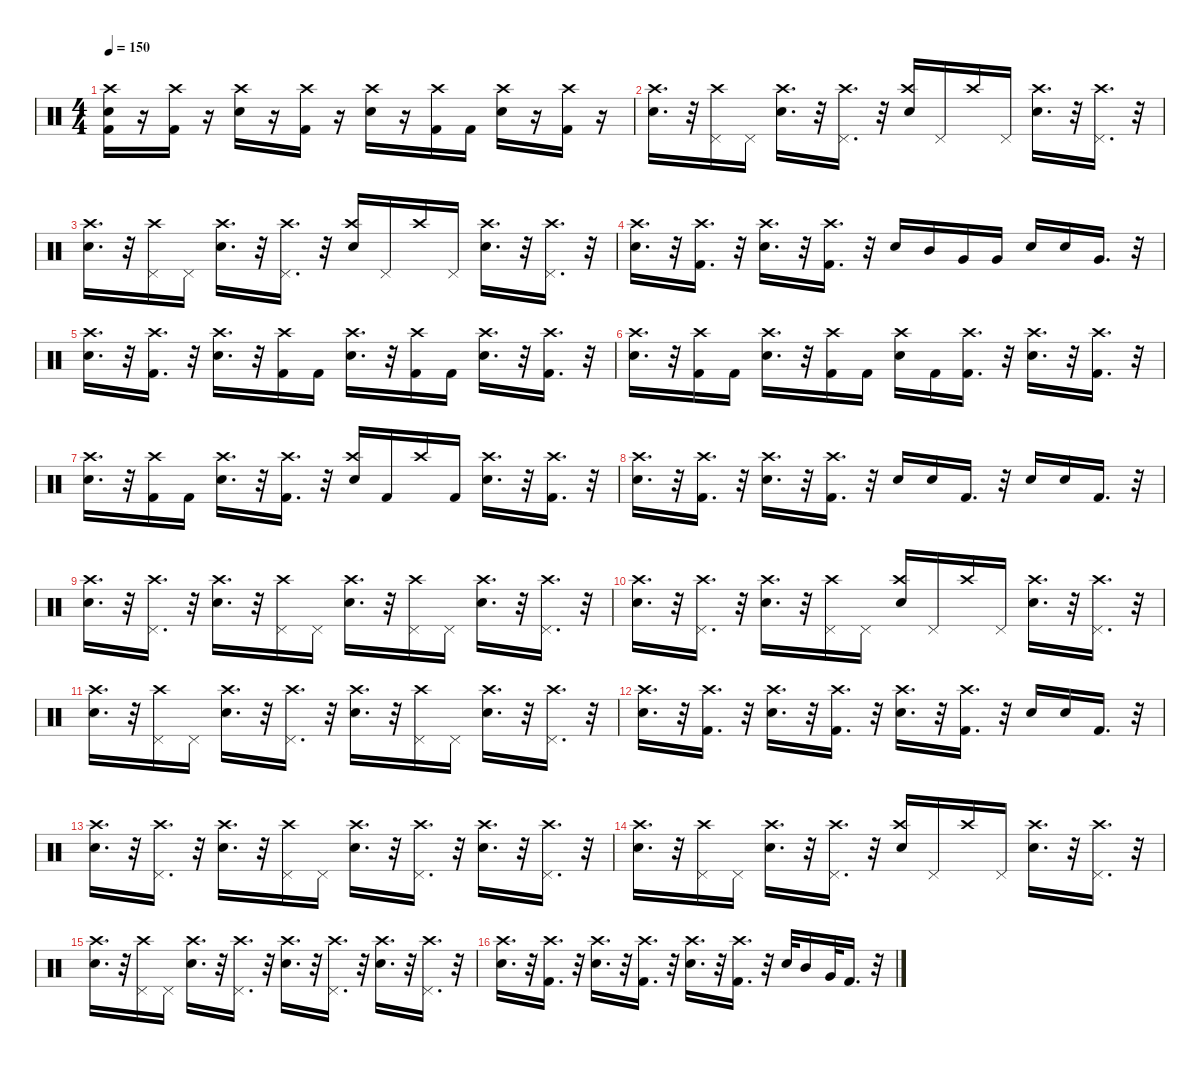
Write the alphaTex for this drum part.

\defaultSystemsLayout 4
\hideDynamics
\bracketExtendMode nobrackets
\singleTrackTrackNamePolicy hidden
\multiTrackTrackNamePolicy hidden
\firstSystemTrackNameMode fullname
\firstSystemTrackNameOrientation horizontal
\otherSystemsTrackNameOrientation horizontal
\track ("Bonzo" "drm.") {instrument percussion}
\staff {score}
\articulation defaults
\ts (4 4)
\tempo 150
\clef neutral
\ks c
("Snare (hit) 2" "Kick (hit) 2" "Crash high (hit)").16{dy fff beam Down} r.16{beam Down} ("Kick (hit) 2" "Crash high (hit)").16{beam Down} r.16{beam Down} ("Snare (hit) 2" "Crash high (hit)").16{beam Down} r.16{beam Down} ("Kick (hit) 2" "Crash high (hit)").16{beam Down} r.16{beam Down} ("Snare (hit) 2" "Crash high (hit)").16{beam Down} r.16{beam Down} ("Kick (hit) 2" "Crash high (hit)").16{beam Down} "Kick (hit) 2".16{beam Down} ("Snare (hit) 2" "Crash high (hit)").16{beam Down} r.16{beam Down} ("Kick (hit) 2" "Crash high (hit)").16{beam Down} r.16{beam Down} |
("Snare (hit) 2" "Crash high (hit)").16{d beam Down} r.32{beam Down} ("Pedal Hi-Hat (hit)" "Crash high (hit)").16{beam Down} "Pedal Hi-Hat (hit)".16{beam Down} ("Snare (hit) 2" "Crash high (hit)").16{d beam Down} r.32{beam Down} ("Pedal Hi-Hat (hit)" "Crash high (hit)").16{d beam Down} r.32{beam Down} ("Snare (hit) 2" "Crash high (hit)").16{beam Up} "Pedal Hi-Hat (hit)".16{beam Up} "Crash high (hit)".16{dy ff beam Up} "Pedal Hi-Hat (hit)".16{dy fff beam Up} ("Snare (hit) 2" "Crash high (hit)").16{d beam Down} r.32{beam Down} ("Pedal Hi-Hat (hit)" "Crash high (hit)").16{d beam Down} r.32{beam Down} |
("Snare (hit) 2" "Crash high (hit)").16{d beam Down} r.32{beam Down} ("Pedal Hi-Hat (hit)" "Crash high (hit)").16{beam Down} "Pedal Hi-Hat (hit)".16{beam Down} ("Snare (hit) 2" "Crash high (hit)").16{d beam Down} r.32{beam Down} ("Pedal Hi-Hat (hit)" "Crash high (hit)").16{d beam Down} r.32{beam Down} ("Snare (hit) 2" "Crash high (hit)").16{beam Up} "Pedal Hi-Hat (hit)".16{beam Up} "Crash high (hit)".16{dy ff beam Up} "Pedal Hi-Hat (hit)".16{dy fff beam Up} ("Snare (hit) 2" "Crash high (hit)").16{d beam Down} r.32{beam Down} ("Pedal Hi-Hat (hit)" "Crash high (hit)").16{d beam Down} r.32{beam Down} |
("Snare (hit) 2" "Crash high (hit)").16{d beam Down} r.32{beam Down} ("Kick (hit) 2" "Crash high (hit)").16{d beam Down} r.32{beam Down} ("Snare (hit) 2" "Crash high (hit)").16{d beam Down} r.32{beam Down} ("Kick (hit) 2" "Crash high (hit)").16{d beam Down} r.32{beam Down} "Snare (hit) 2".16{beam Up} "Mid Tom (hit)".16{dy ff beam Up} "Very Low Tom (hit)".16{beam Up} "Very Low Tom (hit)".16{beam Up} "Snare (hit) 2".16{dy fff beam Up} "Snare (hit) 2".16{beam Up} "Very Low Tom (hit)".16{d dy ff beam Up} r.32{beam Up} |
("Snare (hit) 2" "Crash high (hit)").16{d dy fff beam Down} r.32{beam Down} ("Kick (hit) 2" "Crash high (hit)").16{d beam Down} r.32{beam Down} ("Snare (hit) 2" "Crash high (hit)").16{d beam Down} r.32{beam Down} ("Kick (hit) 2" "Crash high (hit)").16{beam Down} "Kick (hit) 2".16{beam Down} ("Snare (hit) 2" "Crash high (hit)").16{d beam Down} r.32{beam Down} ("Kick (hit) 2" "Crash high (hit)").16{beam Down} "Kick (hit) 2".16{beam Down} ("Snare (hit) 2" "Crash high (hit)").16{d beam Down} r.32{beam Down} ("Kick (hit) 2" "Crash high (hit)").16{d beam Down} r.32{beam Down} |
("Snare (hit) 2" "Crash high (hit)").16{d beam Down} r.32{beam Down} ("Kick (hit) 2" "Crash high (hit)").16{beam Down} "Kick (hit) 2".16{beam Down} ("Snare (hit) 2" "Crash high (hit)").16{d beam Down} r.32{beam Down} ("Kick (hit) 2" "Crash high (hit)").16{beam Down} "Kick (hit) 2".16{beam Down} ("Snare (hit) 2" "Crash high (hit)").16{beam Down} "Kick (hit) 2".16{beam Down} ("Kick (hit) 2" "Crash high (hit)").16{d beam Down} r.32{beam Down} ("Snare (hit) 2" "Crash high (hit)").16{d beam Down} r.32{beam Down} ("Kick (hit) 2" "Crash high (hit)").16{d beam Down} r.32{beam Down} |
("Snare (hit) 2" "Crash high (hit)").16{d beam Down} r.32{beam Down} ("Kick (hit) 2" "Crash high (hit)").16{beam Down} "Kick (hit) 2".16{beam Down} ("Snare (hit) 2" "Crash high (hit)").16{d beam Down} r.32{beam Down} ("Kick (hit) 2" "Crash high (hit)").16{d beam Down} r.32{beam Down} ("Snare (hit) 2" "Crash high (hit)").16{beam Up} "Kick (hit) 2".16{beam Up} "Crash high (hit)".16{dy ff beam Up} "Kick (hit) 2".16{dy fff beam Up} ("Snare (hit) 2" "Crash high (hit)").16{d beam Down} r.32{beam Down} ("Kick (hit) 2" "Crash high (hit)").16{d beam Down} r.32{beam Down} |
("Snare (hit) 2" "Crash high (hit)").16{d beam Down} r.32{beam Down} ("Kick (hit) 2" "Crash high (hit)").16{d beam Down} r.32{beam Down} ("Snare (hit) 2" "Crash high (hit)").16{d beam Down} r.32{beam Down} ("Kick (hit) 2" "Crash high (hit)").16{d beam Down} r.32{beam Down} "Snare (hit) 2".16{beam Up} "Snare (hit) 2".16{beam Up} "Kick (hit) 2".16{d beam Up} r.32{beam Up} "Snare (hit) 2".16{beam Up} "Snare (hit) 2".16{beam Up} "Kick (hit) 2".16{d beam Up} r.32{beam Up} |
("Snare (hit) 2" "Crash high (hit)").16{d beam Down} r.32{beam Down} ("Pedal Hi-Hat (hit)" "Crash high (hit)").16{d beam Down} r.32{beam Down} ("Snare (hit) 2" "Crash high (hit)").16{d beam Down} r.32{beam Down} ("Pedal Hi-Hat (hit)" "Crash high (hit)").16{beam Down} "Pedal Hi-Hat (hit)".16{beam Down} ("Snare (hit) 2" "Crash high (hit)").16{d beam Down} r.32{beam Down} ("Pedal Hi-Hat (hit)" "Crash high (hit)").16{beam Down} "Pedal Hi-Hat (hit)".16{beam Down} ("Snare (hit) 2" "Crash high (hit)").16{d beam Down} r.32{beam Down} ("Pedal Hi-Hat (hit)" "Crash high (hit)").16{d beam Down} r.32{beam Down} |
("Snare (hit) 2" "Crash high (hit)").16{d beam Down} r.32{beam Down} ("Pedal Hi-Hat (hit)" "Crash high (hit)").16{d beam Down} r.32{beam Down} ("Snare (hit) 2" "Crash high (hit)").16{d beam Down} r.32{beam Down} ("Pedal Hi-Hat (hit)" "Crash high (hit)").16{beam Down} "Pedal Hi-Hat (hit)".16{beam Down} ("Snare (hit) 2" "Crash high (hit)").16{beam Up} "Pedal Hi-Hat (hit)".16{beam Up} "Crash high (hit)".16{dy ff beam Up} "Pedal Hi-Hat (hit)".16{dy fff beam Up} ("Snare (hit) 2" "Crash high (hit)").16{d beam Down} r.32{beam Down} ("Pedal Hi-Hat (hit)" "Crash high (hit)").16{d beam Down} r.32{beam Down} |
("Snare (hit) 2" "Crash high (hit)").16{d beam Down} r.32{beam Down} ("Pedal Hi-Hat (hit)" "Crash high (hit)").16{beam Down} "Pedal Hi-Hat (hit)".16{beam Down} ("Snare (hit) 2" "Crash high (hit)").16{d beam Down} r.32{beam Down} ("Pedal Hi-Hat (hit)" "Crash high (hit)").16{d beam Down} r.32{beam Down} ("Snare (hit) 2" "Crash high (hit)").16{d beam Down} r.32{beam Down} ("Pedal Hi-Hat (hit)" "Crash high (hit)").16{beam Down} "Pedal Hi-Hat (hit)".16{beam Down} ("Snare (hit) 2" "Crash high (hit)").16{d beam Down} r.32{beam Down} ("Pedal Hi-Hat (hit)" "Crash high (hit)").16{d beam Down} r.32{beam Down} |
("Snare (hit) 2" "Crash high (hit)").16{d beam Down} r.32{beam Down} ("Kick (hit) 2" "Crash high (hit)").16{d beam Down} r.32{beam Down} ("Snare (hit) 2" "Crash high (hit)").16{d beam Down} r.32{beam Down} ("Kick (hit) 2" "Crash high (hit)").16{d beam Down} r.32{beam Down} ("Snare (hit) 2" "Crash high (hit)").16{d beam Down} r.32{beam Down} ("Kick (hit) 2" "Crash high (hit)").16{d beam Down} r.32{beam Down} "Snare (hit) 2".16{beam Up} "Snare (hit) 2".16{beam Up} "Kick (hit) 2".16{d beam Up} r.32{beam Up} |
("Snare (hit) 2" "Crash high (hit)").16{d beam Down} r.32{beam Down} ("Pedal Hi-Hat (hit)" "Crash high (hit)").16{d beam Down} r.32{beam Down} ("Snare (hit) 2" "Crash high (hit)").16{d beam Down} r.32{beam Down} ("Pedal Hi-Hat (hit)" "Crash high (hit)").16{beam Down} "Pedal Hi-Hat (hit)".16{beam Down} ("Snare (hit) 2" "Crash high (hit)").16{d beam Down} r.32{beam Down} ("Pedal Hi-Hat (hit)" "Crash high (hit)").16{d beam Down} r.32{beam Down} ("Snare (hit) 2" "Crash high (hit)").16{d beam Down} r.32{beam Down} ("Pedal Hi-Hat (hit)" "Crash high (hit)").16{d beam Down} r.32{beam Down} |
("Snare (hit) 2" "Crash high (hit)").16{d beam Down} r.32{beam Down} ("Pedal Hi-Hat (hit)" "Crash high (hit)").16{beam Down} "Pedal Hi-Hat (hit)".16{beam Down} ("Snare (hit) 2" "Crash high (hit)").16{d beam Down} r.32{beam Down} ("Pedal Hi-Hat (hit)" "Crash high (hit)").16{d beam Down} r.32{beam Down} ("Snare (hit) 2" "Crash high (hit)").16{beam Up} "Pedal Hi-Hat (hit)".16{beam Up} "Crash high (hit)".16{dy ff beam Up} "Pedal Hi-Hat (hit)".16{dy fff beam Up} ("Snare (hit) 2" "Crash high (hit)").16{d beam Down} r.32{beam Down} ("Pedal Hi-Hat (hit)" "Crash high (hit)").16{d beam Down} r.32{beam Down} |
("Snare (hit) 2" "Crash high (hit)").16{d beam Down} r.32{beam Down} ("Pedal Hi-Hat (hit)" "Crash high (hit)").16{beam Down} "Pedal Hi-Hat (hit)".16{beam Down} ("Snare (hit) 2" "Crash high (hit)").16{d beam Down} r.32{beam Down} ("Pedal Hi-Hat (hit)" "Crash high (hit)").16{d beam Down} r.32{beam Down} ("Snare (hit) 2" "Crash high (hit)").16{d beam Down} r.32{beam Down} ("Pedal Hi-Hat (hit)" "Crash high (hit)").16{d beam Down} r.32{beam Down} ("Snare (hit) 2" "Crash high (hit)").16{d beam Down} r.32{beam Down} ("Pedal Hi-Hat (hit)" "Crash high (hit)").16{d beam Down} r.32{beam Down} |
("Snare (hit) 2" "Crash high (hit)").16{d beam Down} r.32{beam Down} ("Kick (hit) 2" "Crash high (hit)").16{d beam Down} r.32{beam Down} ("Snare (hit) 2" "Crash high (hit)").16{d beam Down} r.32{beam Down} ("Kick (hit) 2" "Crash high (hit)").16{d beam Down} r.32{beam Down} ("Snare (hit) 2" "Crash high (hit)").16{d beam Down} r.32{beam Down} ("Kick (hit) 2" "Crash high (hit)").16{d beam Down} r.32{beam Down} "Snare (hit) 2".32{beam Up} "Mid Tom (hit)".16{dy ff beam Up} "Very Low Tom (hit)".32{beam Up} "Kick (hit) 2".16{d dy fff beam Up} r.32{beam Up}
